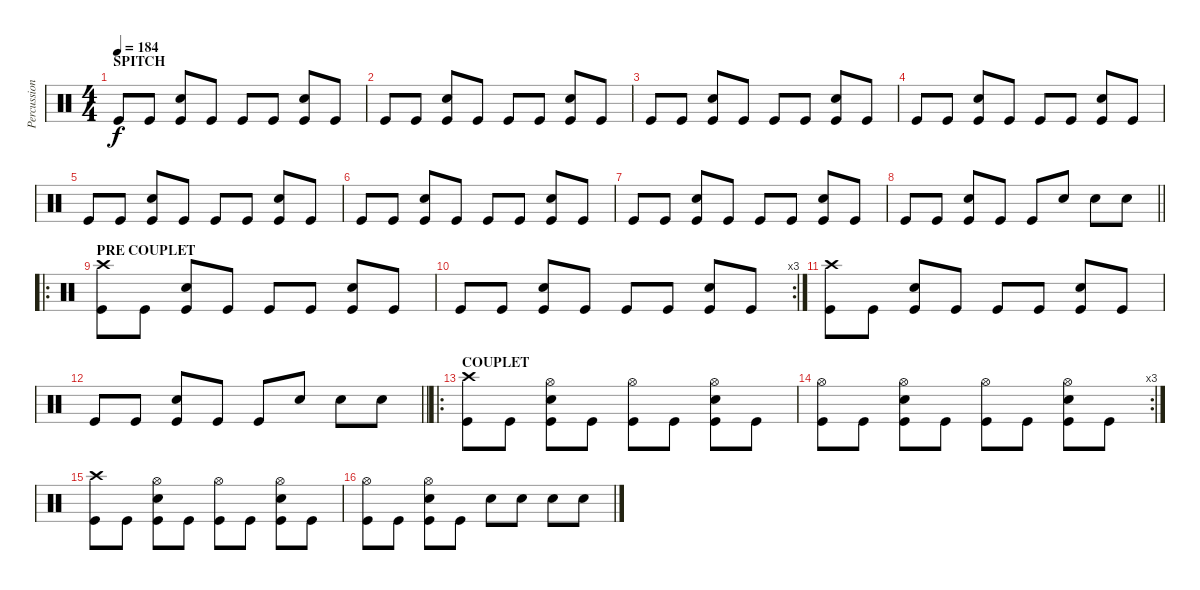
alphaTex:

\track ("Percussions" "Percussion") {instrument percussion}
\staff {score}
\articulation defaults
\ts (4 4)
\section ("" "SPITCH")
\tempo 184
\clef neutral
\ks c "Kick (hit)".8{dy f} "Kick (hit)".8
("Electric Snare (hit)" "Kick (hit)").8 "Kick (hit)".8 "Kick (hit)".8 "Kick (hit)".8 ("Electric Snare (hit)" "Kick (hit)").8 "Kick (hit)".8 |
"Kick (hit)".8 "Kick (hit)".8 ("Electric Snare (hit)" "Kick (hit)").8 "Kick (hit)".8 "Kick (hit)".8 "Kick (hit)".8 ("Electric Snare (hit)" "Kick (hit)").8 "Kick (hit)".8 |
"Kick (hit)".8 "Kick (hit)".8 ("Electric Snare (hit)" "Kick (hit)").8 "Kick (hit)".8 "Kick (hit)".8 "Kick (hit)".8 ("Electric Snare (hit)" "Kick (hit)").8 "Kick (hit)".8 |
"Kick (hit)".8 "Kick (hit)".8 ("Electric Snare (hit)" "Kick (hit)").8 "Kick (hit)".8 "Kick (hit)".8 "Kick (hit)".8 ("Electric Snare (hit)" "Kick (hit)").8 "Kick (hit)".8 |
"Kick (hit)".8 "Kick (hit)".8 ("Electric Snare (hit)" "Kick (hit)").8 "Kick (hit)".8 "Kick (hit)".8 "Kick (hit)".8 ("Electric Snare (hit)" "Kick (hit)").8 "Kick (hit)".8 |
"Kick (hit)".8 "Kick (hit)".8 ("Electric Snare (hit)" "Kick (hit)").8 "Kick (hit)".8 "Kick (hit)".8 "Kick (hit)".8 ("Electric Snare (hit)" "Kick (hit)").8 "Kick (hit)".8 |
"Kick (hit)".8 "Kick (hit)".8 ("Electric Snare (hit)" "Kick (hit)").8 "Kick (hit)".8 "Kick (hit)".8 "Kick (hit)".8 ("Electric Snare (hit)" "Kick (hit)").8 "Kick (hit)".8 |
\barLineRight lightlight "Kick (hit)".8 "Kick (hit)".8
("Electric Snare (hit)" "Kick (hit)").8 "Kick (hit)".8 "Kick (hit)".8 "Electric Snare (hit)".8 "Electric Snare (hit)".8 "Electric Snare (hit)".8 |
\ro
\section ("" "PRE COUPLET")
("Crash high (hit)" "Kick (hit)").8 "Kick (hit)".8 ("Electric Snare (hit)" "Kick (hit)").8 "Kick (hit)".8 "Kick (hit)".8 "Kick (hit)".8 ("Electric Snare (hit)" "Kick (hit)").8 "Kick (hit)".8 |
\rc 3 "Kick (hit)".8 "Kick (hit)".8
("Electric Snare (hit)" "Kick (hit)").8 "Kick (hit)".8 "Kick (hit)".8 "Kick (hit)".8 ("Electric Snare (hit)" "Kick (hit)").8 "Kick (hit)".8 |
("Crash high (hit)" "Kick (hit)").8 "Kick (hit)".8 ("Electric Snare (hit)" "Kick (hit)").8 "Kick (hit)".8 "Kick (hit)".8 "Kick (hit)".8 ("Electric Snare (hit)" "Kick (hit)").8 "Kick (hit)".8 |
\barLineRight lightlight "Kick (hit)".8 "Kick (hit)".8
("Electric Snare (hit)" "Kick (hit)").8 "Kick (hit)".8 "Kick (hit)".8 "Electric Snare (hit)".8 "Electric Snare (hit)".8 "Electric Snare (hit)".8 |
\ro
\section ("" "COUPLET")
("Crash high (hit)" "Kick (hit)").8 "Kick (hit)".8 ("Hi-Hat (open)" "Electric Snare (hit)" "Kick (hit)").8 "Kick (hit)".8 ("Hi-Hat (open)" "Kick (hit)").8 "Kick (hit)".8 ("Hi-Hat (open)" "Electric Snare (hit)" "Kick (hit)").8 "Kick (hit)".8 |
\rc 3
("Hi-Hat (open)" "Kick (hit)").8 "Kick (hit)".8 ("Hi-Hat (open)" "Electric Snare (hit)" "Kick (hit)").8 "Kick (hit)".8 ("Hi-Hat (open)" "Kick (hit)").8 "Kick (hit)".8 ("Hi-Hat (open)" "Electric Snare (hit)" "Kick (hit)").8 "Kick (hit)".8 |
("Crash high (hit)" "Kick (hit)").8 "Kick (hit)".8 ("Hi-Hat (open)" "Electric Snare (hit)" "Kick (hit)").8 "Kick (hit)".8 ("Hi-Hat (open)" "Kick (hit)").8 "Kick (hit)".8 ("Hi-Hat (open)" "Electric Snare (hit)" "Kick (hit)").8 "Kick (hit)".8 |
("Hi-Hat (open)" "Kick (hit)").8 "Kick (hit)".8 ("Hi-Hat (open)" "Electric Snare (hit)" "Kick (hit)").8 "Kick (hit)".8 "Electric Snare (hit)".8 "Electric Snare (hit)".8 "Electric Snare (hit)".8 "Electric Snare (hit)".8
